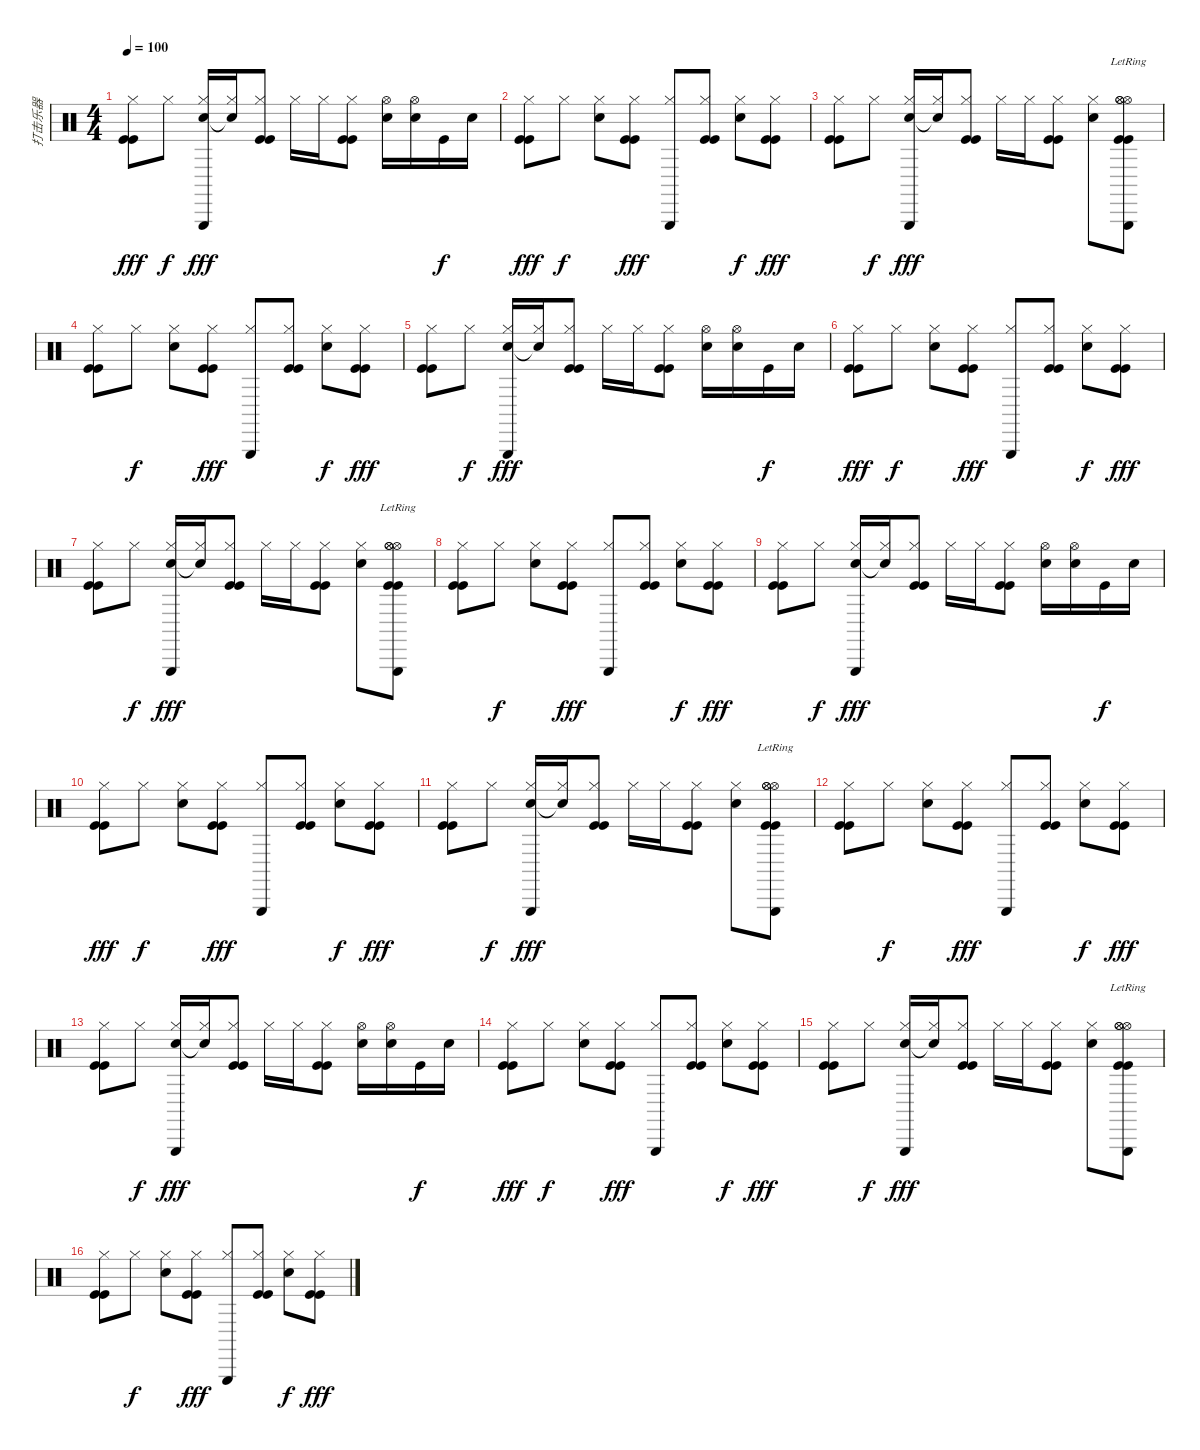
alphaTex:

\track ("打击乐器" "打击乐器") {instrument percussion}
\staff {score}
\articulation defaults
\ts (4 4)
\tempo 100
\clef neutral
\ks c
("Hi-Hat (closed)" "Kick (hit)" "Kick (hit)").8{dy fff} "Hi-Hat (closed)".8{dy f} ("Hi-Hat (closed)" "Electric Snare (hit)" "Triangle (hit)").16{dy fff} ("Hi-Hat (closed)" "Snare (hit)"{t}).16 ("Hi-Hat (closed)" "Kick (hit)" "Kick (hit)").8 "Hi-Hat (closed)".16 "Hi-Hat (closed)".16 ("Hi-Hat (closed)" "Kick (hit)" "Kick (hit)").8 ("Hi-Hat (open)" "Electric Snare (hit)").16 ("Hi-Hat (open)" "Electric Snare (hit)").16 "Kick (hit)".16{dy f} "Electric Snare (hit)".16 |
("Hi-Hat (closed)" "Kick (hit)" "Kick (hit)").8{dy fff} "Hi-Hat (closed)".8{dy f} ("Hi-Hat (closed)" "Electric Snare (hit)").8 ("Hi-Hat (closed)" "Kick (hit)" "Kick (hit)").8{dy fff} ("Hi-Hat (closed)" "Triangle (hit)").8 ("Hi-Hat (closed)" "Kick (hit)" "Kick (hit)").8 ("Hi-Hat (closed)" "Electric Snare (hit)").8{dy f} ("Hi-Hat (closed)" "Kick (hit)" "Kick (hit)").8{dy fff} |
("Hi-Hat (closed)" "Kick (hit)" "Kick (hit)").8 "Hi-Hat (closed)".8{dy f} ("Hi-Hat (closed)" "Electric Snare (hit)" "Triangle (hit)").16{dy fff} ("Hi-Hat (closed)" "Snare (hit)"{t}).16 ("Hi-Hat (closed)" "Kick (hit)" "Kick (hit)").8 "Hi-Hat (closed)".16 "Hi-Hat (closed)".16 ("Hi-Hat (closed)" "Kick (hit)" "Kick (hit)").8 ("Hi-Hat (closed)" "Electric Snare (hit)").8 ("Hi-Hat (open)" "Hi-Hat (open)" "Hi-Hat (open)" "Triangle (hit)"{lr} "Kick (hit)" "Kick (hit)").8 |
("Hi-Hat (closed)" "Kick (hit)" "Kick (hit)").8 "Hi-Hat (closed)".8{dy f} ("Hi-Hat (closed)" "Electric Snare (hit)").8 ("Hi-Hat (closed)" "Kick (hit)" "Kick (hit)").8{dy fff} ("Hi-Hat (closed)" "Triangle (hit)").8 ("Hi-Hat (closed)" "Kick (hit)" "Kick (hit)").8 ("Hi-Hat (closed)" "Electric Snare (hit)").8{dy f} ("Hi-Hat (closed)" "Kick (hit)" "Kick (hit)").8{dy fff} |
("Hi-Hat (closed)" "Kick (hit)" "Kick (hit)").8 "Hi-Hat (closed)".8{dy f} ("Hi-Hat (closed)" "Electric Snare (hit)" "Triangle (hit)").16{dy fff} ("Hi-Hat (closed)" "Snare (hit)"{t}).16 ("Hi-Hat (closed)" "Kick (hit)" "Kick (hit)").8 "Hi-Hat (closed)".16 "Hi-Hat (closed)".16 ("Hi-Hat (closed)" "Kick (hit)" "Kick (hit)").8 ("Hi-Hat (open)" "Electric Snare (hit)").16 ("Hi-Hat (open)" "Electric Snare (hit)").16 "Kick (hit)".16{dy f} "Electric Snare (hit)".16 |
("Hi-Hat (closed)" "Kick (hit)" "Kick (hit)").8{dy fff} "Hi-Hat (closed)".8{dy f} ("Hi-Hat (closed)" "Electric Snare (hit)").8 ("Hi-Hat (closed)" "Kick (hit)" "Kick (hit)").8{dy fff} ("Hi-Hat (closed)" "Triangle (hit)").8 ("Hi-Hat (closed)" "Kick (hit)" "Kick (hit)").8 ("Hi-Hat (closed)" "Electric Snare (hit)").8{dy f} ("Hi-Hat (closed)" "Kick (hit)" "Kick (hit)").8{dy fff} |
("Hi-Hat (closed)" "Kick (hit)" "Kick (hit)").8 "Hi-Hat (closed)".8{dy f} ("Hi-Hat (closed)" "Electric Snare (hit)" "Triangle (hit)").16{dy fff} ("Hi-Hat (closed)" "Snare (hit)"{t}).16 ("Hi-Hat (closed)" "Kick (hit)" "Kick (hit)").8 "Hi-Hat (closed)".16 "Hi-Hat (closed)".16 ("Hi-Hat (closed)" "Kick (hit)" "Kick (hit)").8 ("Hi-Hat (closed)" "Electric Snare (hit)").8 ("Hi-Hat (open)" "Hi-Hat (open)" "Hi-Hat (open)" "Triangle (hit)"{lr} "Kick (hit)" "Kick (hit)").8 |
("Hi-Hat (closed)" "Kick (hit)" "Kick (hit)").8 "Hi-Hat (closed)".8{dy f} ("Hi-Hat (closed)" "Electric Snare (hit)").8 ("Hi-Hat (closed)" "Kick (hit)" "Kick (hit)").8{dy fff} ("Hi-Hat (closed)" "Triangle (hit)").8 ("Hi-Hat (closed)" "Kick (hit)" "Kick (hit)").8 ("Hi-Hat (closed)" "Electric Snare (hit)").8{dy f} ("Hi-Hat (closed)" "Kick (hit)" "Kick (hit)").8{dy fff} |
("Hi-Hat (closed)" "Kick (hit)" "Kick (hit)").8 "Hi-Hat (closed)".8{dy f} ("Hi-Hat (closed)" "Electric Snare (hit)" "Triangle (hit)").16{dy fff} ("Hi-Hat (closed)" "Snare (hit)"{t}).16 ("Hi-Hat (closed)" "Kick (hit)" "Kick (hit)").8 "Hi-Hat (closed)".16 "Hi-Hat (closed)".16 ("Hi-Hat (closed)" "Kick (hit)" "Kick (hit)").8 ("Hi-Hat (open)" "Electric Snare (hit)").16 ("Hi-Hat (open)" "Electric Snare (hit)").16 "Kick (hit)".16{dy f} "Electric Snare (hit)".16 |
("Hi-Hat (closed)" "Kick (hit)" "Kick (hit)").8{dy fff} "Hi-Hat (closed)".8{dy f} ("Hi-Hat (closed)" "Electric Snare (hit)").8 ("Hi-Hat (closed)" "Kick (hit)" "Kick (hit)").8{dy fff} ("Hi-Hat (closed)" "Triangle (hit)").8 ("Hi-Hat (closed)" "Kick (hit)" "Kick (hit)").8 ("Hi-Hat (closed)" "Electric Snare (hit)").8{dy f} ("Hi-Hat (closed)" "Kick (hit)" "Kick (hit)").8{dy fff} |
("Hi-Hat (closed)" "Kick (hit)" "Kick (hit)").8 "Hi-Hat (closed)".8{dy f} ("Hi-Hat (closed)" "Electric Snare (hit)" "Triangle (hit)").16{dy fff} ("Hi-Hat (closed)" "Snare (hit)"{t}).16 ("Hi-Hat (closed)" "Kick (hit)" "Kick (hit)").8 "Hi-Hat (closed)".16 "Hi-Hat (closed)".16 ("Hi-Hat (closed)" "Kick (hit)" "Kick (hit)").8 ("Hi-Hat (closed)" "Electric Snare (hit)").8 ("Hi-Hat (open)" "Hi-Hat (open)" "Hi-Hat (open)" "Triangle (hit)"{lr} "Kick (hit)" "Kick (hit)").8 |
("Hi-Hat (closed)" "Kick (hit)" "Kick (hit)").8 "Hi-Hat (closed)".8{dy f} ("Hi-Hat (closed)" "Electric Snare (hit)").8 ("Hi-Hat (closed)" "Kick (hit)" "Kick (hit)").8{dy fff} ("Hi-Hat (closed)" "Triangle (hit)").8 ("Hi-Hat (closed)" "Kick (hit)" "Kick (hit)").8 ("Hi-Hat (closed)" "Electric Snare (hit)").8{dy f} ("Hi-Hat (closed)" "Kick (hit)" "Kick (hit)").8{dy fff} |
("Hi-Hat (closed)" "Kick (hit)" "Kick (hit)").8 "Hi-Hat (closed)".8{dy f} ("Hi-Hat (closed)" "Electric Snare (hit)" "Triangle (hit)").16{dy fff} ("Hi-Hat (closed)" "Snare (hit)"{t}).16 ("Hi-Hat (closed)" "Kick (hit)" "Kick (hit)").8 "Hi-Hat (closed)".16 "Hi-Hat (closed)".16 ("Hi-Hat (closed)" "Kick (hit)" "Kick (hit)").8 ("Hi-Hat (open)" "Electric Snare (hit)").16 ("Hi-Hat (open)" "Electric Snare (hit)").16 "Kick (hit)".16{dy f} "Electric Snare (hit)".16 |
("Hi-Hat (closed)" "Kick (hit)" "Kick (hit)").8{dy fff} "Hi-Hat (closed)".8{dy f} ("Hi-Hat (closed)" "Electric Snare (hit)").8 ("Hi-Hat (closed)" "Kick (hit)" "Kick (hit)").8{dy fff} ("Hi-Hat (closed)" "Triangle (hit)").8 ("Hi-Hat (closed)" "Kick (hit)" "Kick (hit)").8 ("Hi-Hat (closed)" "Electric Snare (hit)").8{dy f} ("Hi-Hat (closed)" "Kick (hit)" "Kick (hit)").8{dy fff} |
("Hi-Hat (closed)" "Kick (hit)" "Kick (hit)").8 "Hi-Hat (closed)".8{dy f} ("Hi-Hat (closed)" "Electric Snare (hit)" "Triangle (hit)").16{dy fff} ("Hi-Hat (closed)" "Snare (hit)"{t}).16 ("Hi-Hat (closed)" "Kick (hit)" "Kick (hit)").8 "Hi-Hat (closed)".16 "Hi-Hat (closed)".16 ("Hi-Hat (closed)" "Kick (hit)" "Kick (hit)").8 ("Hi-Hat (closed)" "Electric Snare (hit)").8 ("Hi-Hat (open)" "Hi-Hat (open)" "Hi-Hat (open)" "Triangle (hit)"{lr} "Kick (hit)" "Kick (hit)").8 |
("Hi-Hat (closed)" "Kick (hit)" "Kick (hit)").8 "Hi-Hat (closed)".8{dy f} ("Hi-Hat (closed)" "Electric Snare (hit)").8 ("Hi-Hat (closed)" "Kick (hit)" "Kick (hit)").8{dy fff} ("Hi-Hat (closed)" "Triangle (hit)").8 ("Hi-Hat (closed)" "Kick (hit)" "Kick (hit)").8 ("Hi-Hat (closed)" "Electric Snare (hit)").8{dy f} ("Hi-Hat (closed)" "Kick (hit)" "Kick (hit)").8{dy fff}
